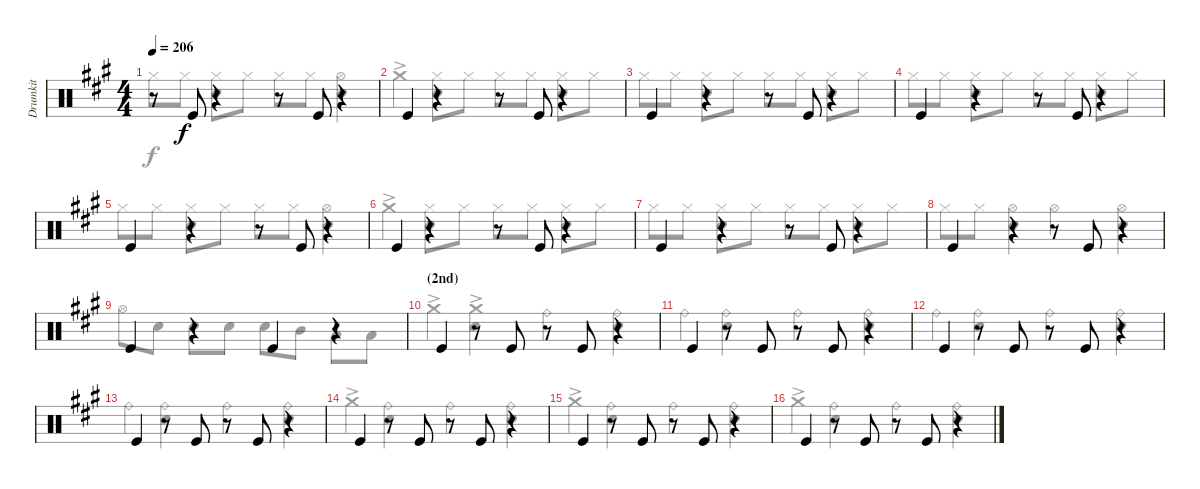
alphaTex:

\track ("Drumkit" "Drumkit") {instrument percussion}
\staff {score}
\articulation defaults
\voice
\ts (4 4)
\tempo 206
\clef neutral
\ks a
r.8{dy f} "Kick (hit)".8 r.4 r.8 "Kick (hit)".8 r.4 |
"Kick (hit)".4 r.4 r.8 "Kick (hit)".8 r.4 |
"Kick (hit)".4 r.4 r.8 "Kick (hit)".8 r.4 |
"Kick (hit)".4 r.4 r.8 "Kick (hit)".8 r.4 |
"Kick (hit)".4 r.4 r.8 "Kick (hit)".8 r.4 |
"Kick (hit)".4 r.4 r.8 "Kick (hit)".8 r.4 |
"Kick (hit)".4 r.4 r.8 "Kick (hit)".8 r.4 |
"Kick (hit)".4 r.4 r.8 "Kick (hit)".8 r.4 |
"Kick (hit)".4 r.4 "Kick (hit)".4 r.4 |
\section ("" "(2nd)")
"Kick (hit)".4 r.8 "Kick (hit)".8 r.8 "Kick (hit)".8 r.4 |
"Kick (hit)".4 r.8 "Kick (hit)".8 r.8 "Kick (hit)".8 r.4 |
"Kick (hit)".4 r.8 "Kick (hit)".8 r.8 "Kick (hit)".8 r.4 |
"Kick (hit)".4 r.8 "Kick (hit)".8 r.8 "Kick (hit)".8 r.4 |
"Kick (hit)".4 r.8 "Kick (hit)".8 r.8 "Kick (hit)".8 r.4 |
"Kick (hit)".4 r.8 "Kick (hit)".8 r.8 "Kick (hit)".8 r.4 |
"Kick (hit)".4 r.8 "Kick (hit)".8 r.8 "Kick (hit)".8 r.4
\voice
\clef neutral
\ottava regular
\simile none
\ks a "Hi-Hat (closed)".8{dy f} "Hi-Hat (closed)".8
("Hi-Hat (closed)" "Snare (hit) 2").8 "Hi-Hat (closed)".8 "Hi-Hat (closed)".8 "Hi-Hat (closed)".8 ("Hi-Hat (open)" "Snare (hit) 2").4 |
"Crash medium (hit)"{ac}.4 ("Hi-Hat (closed)" "Snare (hit) 2").8 "Hi-Hat (closed)".8 "Hi-Hat (closed)".8 "Hi-Hat (closed)".8 ("Hi-Hat (closed)" "Snare (hit) 2").8 "Hi-Hat (closed)".8 |
"Hi-Hat (closed)".8 "Hi-Hat (closed)".8 ("Hi-Hat (closed)" "Snare (hit) 2").8 "Hi-Hat (closed)".8 "Hi-Hat (closed)".8 "Hi-Hat (closed)".8 ("Hi-Hat (closed)" "Snare (hit) 2").8 "Hi-Hat (closed)".8 |
"Hi-Hat (closed)".8 "Hi-Hat (closed)".8 ("Hi-Hat (closed)" "Snare (hit) 2").8 "Hi-Hat (closed)".8 "Hi-Hat (closed)".8 "Hi-Hat (closed)".8 ("Hi-Hat (closed)" "Snare (hit) 2").8 "Hi-Hat (closed)".8 |
"Hi-Hat (closed)".8 "Hi-Hat (closed)".8 ("Hi-Hat (closed)" "Snare (hit) 2").8 "Hi-Hat (closed)".8 "Hi-Hat (closed)".8 "Hi-Hat (closed)".8 ("Hi-Hat (open)" "Snare (hit) 2").4 |
"Crash medium (hit)"{ac}.4 ("Hi-Hat (closed)" "Snare (hit) 2").8 "Hi-Hat (closed)".8 "Hi-Hat (closed)".8 "Hi-Hat (closed)".8 ("Hi-Hat (closed)" "Snare (hit) 2").8 "Hi-Hat (closed)".8 |
"Hi-Hat (closed)".8 "Hi-Hat (closed)".8 ("Hi-Hat (closed)" "Snare (hit) 2").8 "Hi-Hat (closed)".8 "Hi-Hat (closed)".8 "Hi-Hat (closed)".8 ("Hi-Hat (closed)" "Snare (hit) 2").8 "Hi-Hat (closed)".8 |
"Hi-Hat (closed)".8 "Hi-Hat (closed)".8 ("Hi-Hat (open)" "Snare (hit) 2").4 "Hi-Hat (open)".4 ("Hi-Hat (open)" "Snare (hit) 2").4 |
"Hi-Hat (open)".8 "Snare (hit) 2".8 "Snare (hit) 2".8 "Snare (hit) 2".8 "Snare (hit) 2".8 "Mid Tom (hit)".8 "Low Tom (hit)".8 "Low Tom (hit)".8 |
"Crash medium (hit)"{ac}.4 ("Crash medium (hit)"{ac} "Snare (hit) 2").4 "Ride (bell)".4 ("Ride (bell)" "Snare (hit) 2").4 |
"Ride (bell)".4 ("Snare (hit) 2" "Ride (bell)").4 "Ride (bell)".4 ("Ride (bell)" "Snare (hit) 2").4 |
"Ride (bell)".4 ("Snare (hit) 2" "Ride (bell)").4 "Ride (bell)".4 ("Ride (bell)" "Snare (hit) 2").4 |
"Ride (bell)".4 ("Snare (hit) 2" "Ride (bell)").4 "Ride (bell)".4 ("Ride (bell)" "Snare (hit) 2").4 |
"Crash medium (hit)"{ac}.4 ("Snare (hit) 2" "Ride (bell)").4 "Ride (bell)".4 ("Ride (bell)" "Snare (hit) 2").4 |
"Crash medium (hit)"{ac}.4 ("Snare (hit) 2" "Ride (bell)").4 "Ride (bell)".4 ("Ride (bell)" "Snare (hit) 2").4 |
"Crash medium (hit)"{ac}.4 ("Snare (hit) 2" "Ride (bell)").4 "Ride (bell)".4 ("Ride (bell)" "Snare (hit) 2").4
